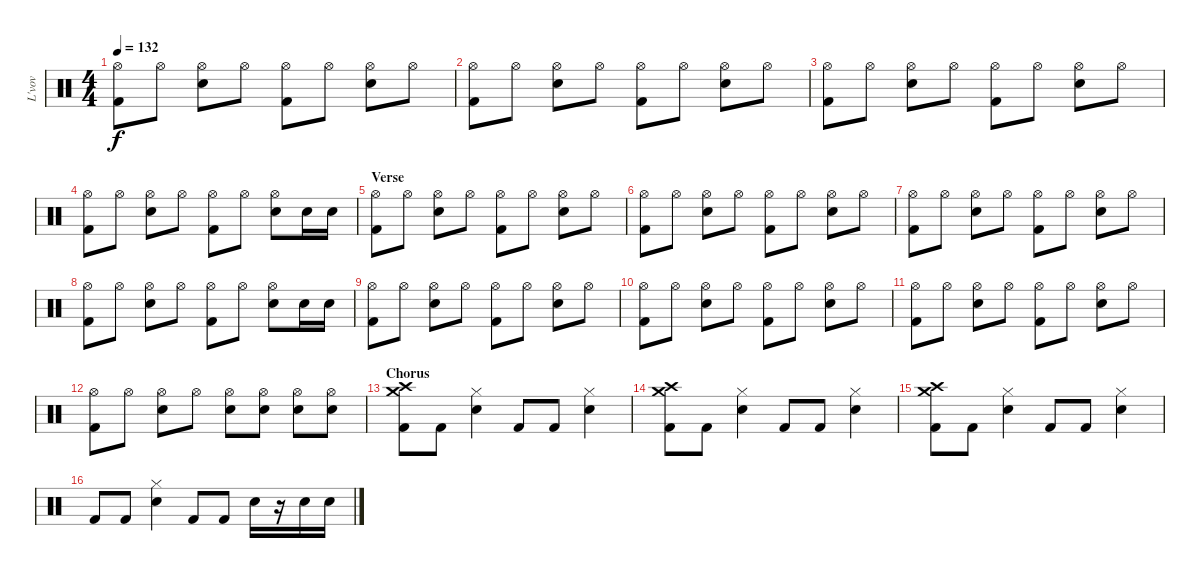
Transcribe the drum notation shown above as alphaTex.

\track ("L'vov" "L'vov") {instrument percussion}
\staff {score}
\articulation defaults
\ts (4 4)
\tempo 132
\clef neutral
\ks c
("Hi-Hat (open)" "Kick (hit) 2").8{dy f} "Hi-Hat (open)".8 ("Hi-Hat (open)" "Snare (hit) 2").8 "Hi-Hat (open)".8 ("Hi-Hat (open)" "Kick (hit) 2").8 "Hi-Hat (open)".8 ("Hi-Hat (open)" "Snare (hit) 2").8 "Hi-Hat (open)".8 |
("Hi-Hat (open)" "Kick (hit) 2").8 "Hi-Hat (open)".8 ("Hi-Hat (open)" "Snare (hit) 2").8 "Hi-Hat (open)".8 ("Hi-Hat (open)" "Kick (hit) 2").8 "Hi-Hat (open)".8 ("Hi-Hat (open)" "Snare (hit) 2").8 "Hi-Hat (open)".8 |
("Hi-Hat (open)" "Kick (hit) 2").8 "Hi-Hat (open)".8 ("Hi-Hat (open)" "Snare (hit) 2").8 "Hi-Hat (open)".8 ("Hi-Hat (open)" "Kick (hit) 2").8 "Hi-Hat (open)".8 ("Hi-Hat (open)" "Snare (hit) 2").8 "Hi-Hat (open)".8 |
("Hi-Hat (open)" "Kick (hit) 2").8 "Hi-Hat (open)".8 ("Hi-Hat (open)" "Snare (hit) 2").8 "Hi-Hat (open)".8 ("Hi-Hat (open)" "Kick (hit) 2").8 "Hi-Hat (open)".8 ("Hi-Hat (open)" "Snare (hit) 2").8 "Snare (hit) 2".16 "Snare (hit) 2".16 |
\section ("" "Verse")
("Hi-Hat (open)" "Kick (hit) 2").8 "Hi-Hat (open)".8 ("Hi-Hat (open)" "Snare (hit) 2").8 "Hi-Hat (open)".8 ("Hi-Hat (open)" "Kick (hit) 2").8 "Hi-Hat (open)".8 ("Hi-Hat (open)" "Snare (hit) 2").8 "Hi-Hat (open)".8 |
("Hi-Hat (open)" "Kick (hit) 2").8 "Hi-Hat (open)".8 ("Hi-Hat (open)" "Snare (hit) 2").8 "Hi-Hat (open)".8 ("Hi-Hat (open)" "Kick (hit) 2").8 "Hi-Hat (open)".8 ("Hi-Hat (open)" "Snare (hit) 2").8 "Hi-Hat (open)".8 |
("Hi-Hat (open)" "Kick (hit) 2").8 "Hi-Hat (open)".8 ("Hi-Hat (open)" "Snare (hit) 2").8 "Hi-Hat (open)".8 ("Hi-Hat (open)" "Kick (hit) 2").8 "Hi-Hat (open)".8 ("Hi-Hat (open)" "Snare (hit) 2").8 "Hi-Hat (open)".8 |
("Hi-Hat (open)" "Kick (hit) 2").8 "Hi-Hat (open)".8 ("Hi-Hat (open)" "Snare (hit) 2").8 "Hi-Hat (open)".8 ("Hi-Hat (open)" "Kick (hit) 2").8 "Hi-Hat (open)".8 ("Hi-Hat (open)" "Snare (hit) 2").8 "Snare (hit) 2".16 "Snare (hit) 2".16 |
("Hi-Hat (open)" "Kick (hit) 2").8 "Hi-Hat (open)".8 ("Hi-Hat (open)" "Snare (hit) 2").8 "Hi-Hat (open)".8 ("Hi-Hat (open)" "Kick (hit) 2").8 "Hi-Hat (open)".8 ("Hi-Hat (open)" "Snare (hit) 2").8 "Hi-Hat (open)".8 |
("Hi-Hat (open)" "Kick (hit) 2").8 "Hi-Hat (open)".8 ("Hi-Hat (open)" "Snare (hit) 2").8 "Hi-Hat (open)".8 ("Hi-Hat (open)" "Kick (hit) 2").8 "Hi-Hat (open)".8 ("Hi-Hat (open)" "Snare (hit) 2").8 "Hi-Hat (open)".8 |
("Hi-Hat (open)" "Kick (hit) 2").8 "Hi-Hat (open)".8 ("Hi-Hat (open)" "Snare (hit) 2").8 "Hi-Hat (open)".8 ("Hi-Hat (open)" "Kick (hit) 2").8 "Hi-Hat (open)".8 ("Hi-Hat (open)" "Snare (hit) 2").8 "Hi-Hat (open)".8 |
("Hi-Hat (open)" "Kick (hit) 2").8 "Hi-Hat (open)".8 ("Hi-Hat (open)" "Snare (hit) 2").8 "Hi-Hat (open)".8 ("Hi-Hat (open)" "Snare (hit) 2").8 ("Hi-Hat (open)" "Snare (hit) 2").8 ("Hi-Hat (open)" "Snare (hit) 2").8 ("Hi-Hat (open)" "Snare (hit) 2").8 |
\section ("" "Chorus")
("Kick (hit) 2" "Crash high (hit)" "Crash medium (hit)").8 "Kick (hit) 2".8 ("Snare (hit) 2" "Hi-Hat (closed)").4 "Kick (hit) 2".8 "Kick (hit) 2".8 ("Snare (hit) 2" "Hi-Hat (closed)").4 |
("Kick (hit) 2" "Crash high (hit)" "Crash medium (hit)").8 "Kick (hit) 2".8 ("Snare (hit) 2" "Hi-Hat (closed)").4 "Kick (hit) 2".8 "Kick (hit) 2".8 ("Snare (hit) 2" "Hi-Hat (closed)").4 |
("Kick (hit) 2" "Crash high (hit)" "Crash medium (hit)").8 "Kick (hit) 2".8 ("Snare (hit) 2" "Hi-Hat (closed)").4 "Kick (hit) 2".8 "Kick (hit) 2".8 ("Snare (hit) 2" "Hi-Hat (closed)").4 |
"Kick (hit) 2".8 "Kick (hit) 2".8 ("Snare (hit) 2" "Hi-Hat (closed)").4 "Kick (hit) 2".8 "Kick (hit) 2".8 "Snare (hit) 2".16 r.16 "Snare (hit) 2".16 "Snare (hit) 2".16
